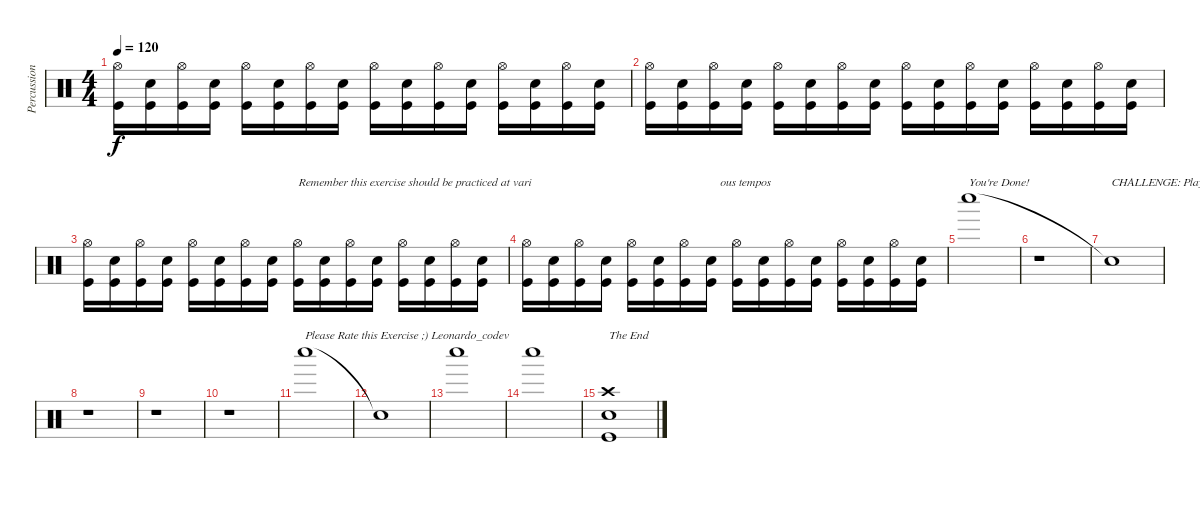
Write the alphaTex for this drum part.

\track ("Percussion" "Percussion") {instrument percussion}
\staff {score}
\articulation defaults
\ts (4 4)
\tempo 120
\clef neutral
\ks c
("Hi-Hat (open)" "Kick (hit)").16{dy f} ("Electric Snare (hit)" "Kick (hit)").16 ("Hi-Hat (open)" "Kick (hit)").16 ("Electric Snare (hit)" "Kick (hit)").16 ("Hi-Hat (open)" "Kick (hit)").16 ("Electric Snare (hit)" "Kick (hit)").16 ("Hi-Hat (open)" "Kick (hit)").16 ("Electric Snare (hit)" "Kick (hit)").16 ("Hi-Hat (open)" "Kick (hit)").16 ("Electric Snare (hit)" "Kick (hit)").16 ("Hi-Hat (open)" "Kick (hit)").16 ("Electric Snare (hit)" "Kick (hit)").16 ("Hi-Hat (open)" "Kick (hit)").16 ("Electric Snare (hit)" "Kick (hit)").16 ("Hi-Hat (open)" "Kick (hit)").16 ("Electric Snare (hit)" "Kick (hit)").16 |
("Hi-Hat (open)" "Kick (hit)").16 ("Electric Snare (hit)" "Kick (hit)").16 ("Hi-Hat (open)" "Kick (hit)").16 ("Electric Snare (hit)" "Kick (hit)").16 ("Hi-Hat (open)" "Kick (hit)").16 ("Electric Snare (hit)" "Kick (hit)").16 ("Hi-Hat (open)" "Kick (hit)").16 ("Electric Snare (hit)" "Kick (hit)").16 ("Hi-Hat (open)" "Kick (hit)").16 ("Electric Snare (hit)" "Kick (hit)").16 ("Hi-Hat (open)" "Kick (hit)").16 ("Electric Snare (hit)" "Kick (hit)").16 ("Hi-Hat (open)" "Kick (hit)").16 ("Electric Snare (hit)" "Kick (hit)").16 ("Hi-Hat (open)" "Kick (hit)").16 ("Electric Snare (hit)" "Kick (hit)").16 |
("Hi-Hat (open)" "Kick (hit)").16 ("Electric Snare (hit)" "Kick (hit)").16 ("Hi-Hat (open)" "Kick (hit)").16 ("Electric Snare (hit)" "Kick (hit)").16 ("Hi-Hat (open)" "Kick (hit)").16 ("Electric Snare (hit)" "Kick (hit)").16 ("Hi-Hat (open)" "Kick (hit)").16 ("Electric Snare (hit)" "Kick (hit)").16 ("Hi-Hat (open)" "Kick (hit)").16{txt "Remember this exercise should be practiced at vari"} ("Electric Snare (hit)" "Kick (hit)").16 ("Hi-Hat (open)" "Kick (hit)").16 ("Electric Snare (hit)" "Kick (hit)").16 ("Hi-Hat (open)" "Kick (hit)").16 ("Electric Snare (hit)" "Kick (hit)").16 ("Hi-Hat (open)" "Kick (hit)").16 ("Electric Snare (hit)" "Kick (hit)").16 |
("Hi-Hat (open)" "Kick (hit)").16 ("Electric Snare (hit)" "Kick (hit)").16 ("Hi-Hat (open)" "Kick (hit)").16 ("Electric Snare (hit)" "Kick (hit)").16 ("Hi-Hat (open)" "Kick (hit)").16 ("Electric Snare (hit)" "Kick (hit)").16 ("Hi-Hat (open)" "Kick (hit)").16 ("Electric Snare (hit)" "Kick (hit)").16{txt "   ous tempos"} ("Hi-Hat (open)" "Kick (hit)").16 ("Electric Snare (hit)" "Kick (hit)").16 ("Hi-Hat (open)" "Kick (hit)").16 ("Electric Snare (hit)" "Kick (hit)").16 ("Hi-Hat (open)" "Kick (hit)").16 ("Electric Snare (hit)" "Kick (hit)").16 ("Hi-Hat (open)" "Kick (hit)").16 ("Electric Snare (hit)" "Kick (hit)").16 |
"Whistle low (hit)".1{txt "You're Done!"} |
r.1 |
"Snare (hit)"{t}.1{txt "CHALLENGE: Play this at tempo 160!"} |
r.1 |
r.1 |
r.1 |
"Whistle low (hit)".1{txt "Please Rate this Exercise ;) Leonardo_codev"} |
"Snare (hit)"{t}.1 |
"Whistle low (hit)".1 |
"Whistle low (hit)".1 |
("Crash high (hit)" "Snare (hit)" "Kick (hit)").1{txt "The End"}
